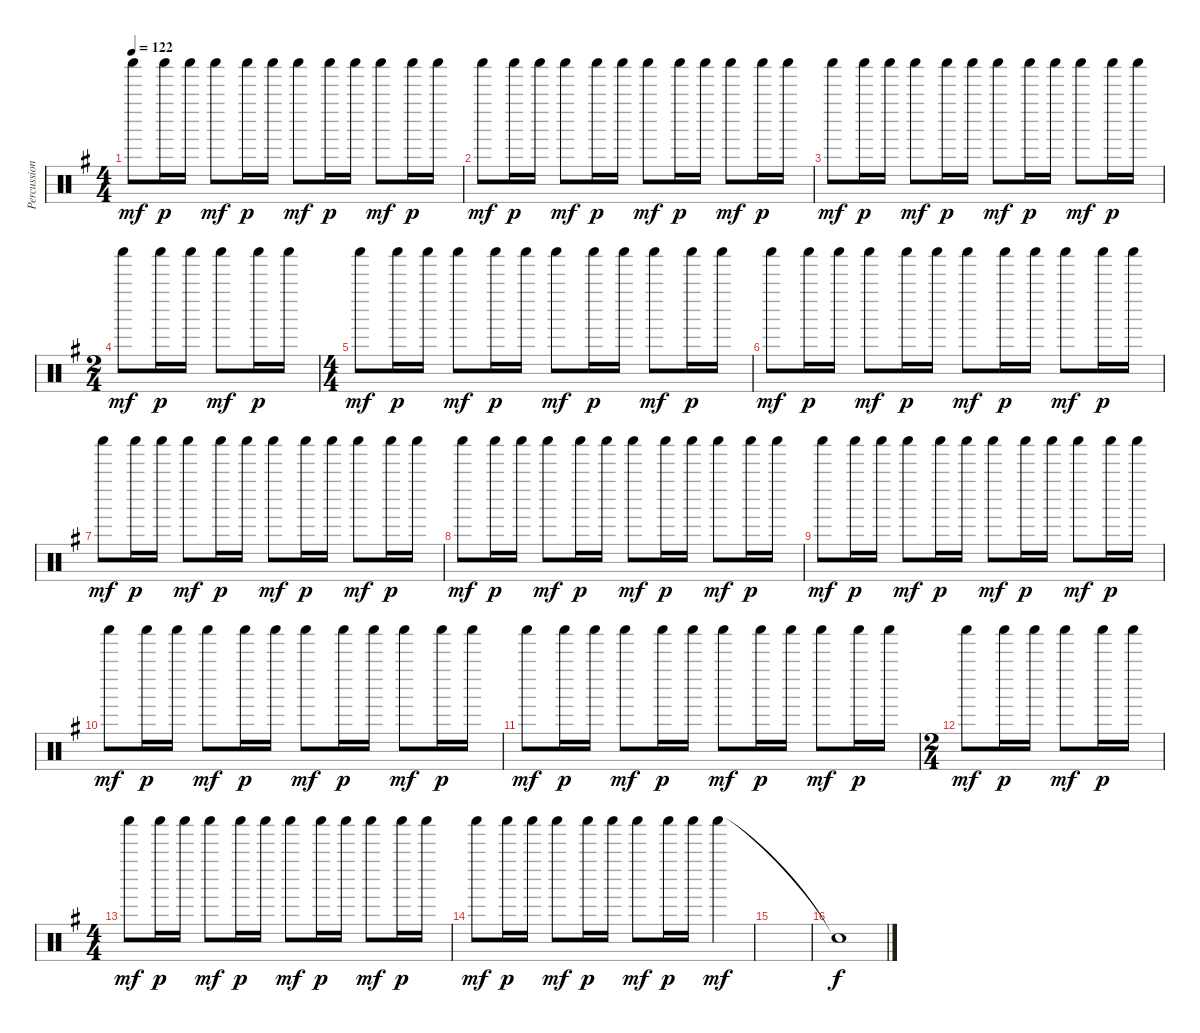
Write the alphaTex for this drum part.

\track ("Percussion" "Percussion") {instrument percussion}
\staff {score}
\articulation defaults
\ts (4 4)
\tempo 122
\clef neutral
\ks g "Shaker (hit)".8{dy mf} "Shaker (hit)".16{dy p} "Shaker (hit)".16 "Shaker (hit)".8{dy mf} "Shaker (hit)".16{dy p} "Shaker (hit)".16 "Shaker (hit)".8{dy mf} "Shaker (hit)".16{dy p} "Shaker (hit)".16 "Shaker (hit)".8{dy mf} "Shaker (hit)".16{dy p} "Shaker (hit)".16
|
"Shaker (hit)".8{dy mf} "Shaker (hit)".16{dy p} "Shaker (hit)".16 "Shaker (hit)".8{dy mf} "Shaker (hit)".16{dy p} "Shaker (hit)".16 "Shaker (hit)".8{dy mf} "Shaker (hit)".16{dy p} "Shaker (hit)".16 "Shaker (hit)".8{dy mf} "Shaker (hit)".16{dy p} "Shaker (hit)".16 |
"Shaker (hit)".8{dy mf} "Shaker (hit)".16{dy p} "Shaker (hit)".16 "Shaker (hit)".8{dy mf} "Shaker (hit)".16{dy p} "Shaker (hit)".16 "Shaker (hit)".8{dy mf} "Shaker (hit)".16{dy p} "Shaker (hit)".16 "Shaker (hit)".8{dy mf} "Shaker (hit)".16{dy p} "Shaker (hit)".16 |
\ts (2 4)
"Shaker (hit)".8{dy mf} "Shaker (hit)".16{dy p} "Shaker (hit)".16 "Shaker (hit)".8{dy mf} "Shaker (hit)".16{dy p} "Shaker (hit)".16 |
\ts (4 4)
"Shaker (hit)".8{dy mf} "Shaker (hit)".16{dy p} "Shaker (hit)".16 "Shaker (hit)".8{dy mf} "Shaker (hit)".16{dy p} "Shaker (hit)".16 "Shaker (hit)".8{dy mf} "Shaker (hit)".16{dy p} "Shaker (hit)".16 "Shaker (hit)".8{dy mf} "Shaker (hit)".16{dy p} "Shaker (hit)".16 |
"Shaker (hit)".8{dy mf} "Shaker (hit)".16{dy p} "Shaker (hit)".16 "Shaker (hit)".8{dy mf} "Shaker (hit)".16{dy p} "Shaker (hit)".16 "Shaker (hit)".8{dy mf} "Shaker (hit)".16{dy p} "Shaker (hit)".16 "Shaker (hit)".8{dy mf} "Shaker (hit)".16{dy p} "Shaker (hit)".16 |
"Shaker (hit)".8{dy mf} "Shaker (hit)".16{dy p} "Shaker (hit)".16 "Shaker (hit)".8{dy mf} "Shaker (hit)".16{dy p} "Shaker (hit)".16 "Shaker (hit)".8{dy mf} "Shaker (hit)".16{dy p} "Shaker (hit)".16 "Shaker (hit)".8{dy mf} "Shaker (hit)".16{dy p} "Shaker (hit)".16 |
"Shaker (hit)".8{dy mf} "Shaker (hit)".16{dy p} "Shaker (hit)".16 "Shaker (hit)".8{dy mf} "Shaker (hit)".16{dy p} "Shaker (hit)".16 "Shaker (hit)".8{dy mf} "Shaker (hit)".16{dy p} "Shaker (hit)".16 "Shaker (hit)".8{dy mf} "Shaker (hit)".16{dy p} "Shaker (hit)".16 |
"Shaker (hit)".8{dy mf} "Shaker (hit)".16{dy p} "Shaker (hit)".16 "Shaker (hit)".8{dy mf} "Shaker (hit)".16{dy p} "Shaker (hit)".16 "Shaker (hit)".8{dy mf} "Shaker (hit)".16{dy p} "Shaker (hit)".16 "Shaker (hit)".8{dy mf} "Shaker (hit)".16{dy p} "Shaker (hit)".16 |
"Shaker (hit)".8{dy mf} "Shaker (hit)".16{dy p} "Shaker (hit)".16 "Shaker (hit)".8{dy mf} "Shaker (hit)".16{dy p} "Shaker (hit)".16 "Shaker (hit)".8{dy mf} "Shaker (hit)".16{dy p} "Shaker (hit)".16 "Shaker (hit)".8{dy mf} "Shaker (hit)".16{dy p} "Shaker (hit)".16 |
"Shaker (hit)".8{dy mf} "Shaker (hit)".16{dy p} "Shaker (hit)".16 "Shaker (hit)".8{dy mf} "Shaker (hit)".16{dy p} "Shaker (hit)".16 "Shaker (hit)".8{dy mf} "Shaker (hit)".16{dy p} "Shaker (hit)".16 "Shaker (hit)".8{dy mf} "Shaker (hit)".16{dy p} "Shaker (hit)".16 |
\ts (2 4)
"Shaker (hit)".8{dy mf} "Shaker (hit)".16{dy p} "Shaker (hit)".16 "Shaker (hit)".8{dy mf} "Shaker (hit)".16{dy p} "Shaker (hit)".16 |
\ts (4 4)
"Shaker (hit)".8{dy mf} "Shaker (hit)".16{dy p} "Shaker (hit)".16 "Shaker (hit)".8{dy mf} "Shaker (hit)".16{dy p} "Shaker (hit)".16 "Shaker (hit)".8{dy mf} "Shaker (hit)".16{dy p} "Shaker (hit)".16 "Shaker (hit)".8{dy mf} "Shaker (hit)".16{dy p} "Shaker (hit)".16 |
"Shaker (hit)".8{dy mf} "Shaker (hit)".16{dy p} "Shaker (hit)".16 "Shaker (hit)".8{dy mf} "Shaker (hit)".16{dy p} "Shaker (hit)".16 "Shaker (hit)".8{dy mf} "Shaker (hit)".16{dy p} "Shaker (hit)".16 "Shaker (hit)".4{dy mf} |
|
"Snare (hit)"{t}.1{dy f}
